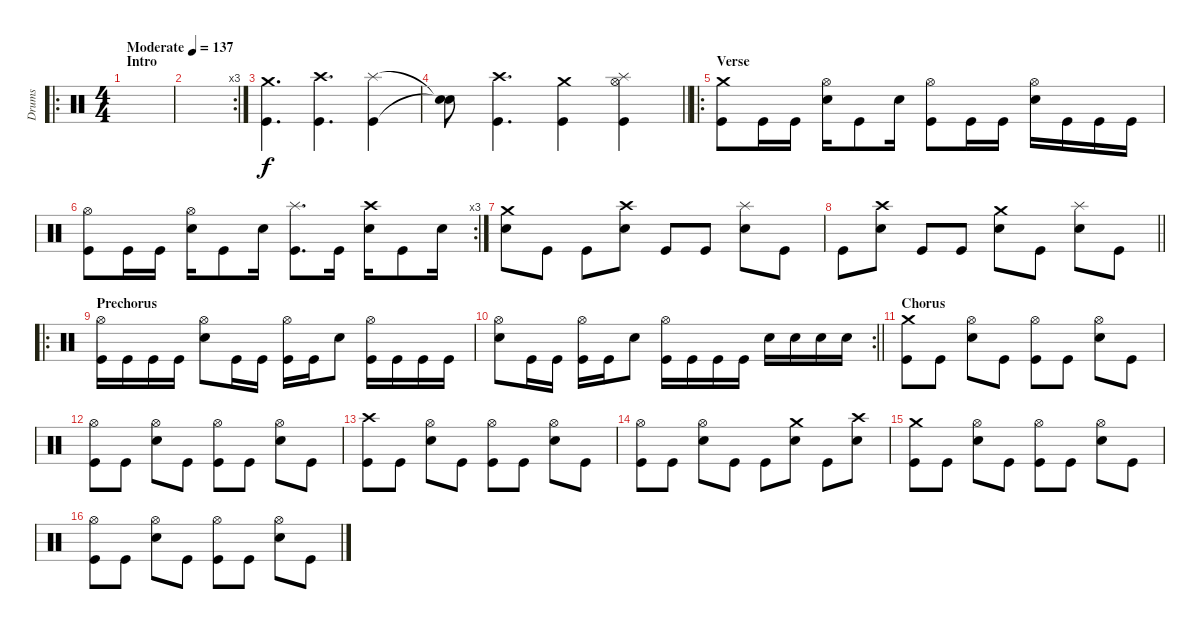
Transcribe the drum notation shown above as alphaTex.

\track ("Drums" "Drums") {instrument percussion}
\staff {score}
\articulation defaults
\ro
\ts (4 4)
\section ("" "Intro")
\tempo (137 "Moderate")
\clef neutral
\ks c
|
\rc 3
|
("Kick (hit)" "Crash medium (hit)").4{d} ("Kick (hit)" "Crash high (hit)").4{d} ("Kick (hit)" "Splash (hit)").4 |
\barLineRight lightlight
("Snare (hit)"{t} "Snare (hit)"{t}).8 ("Kick (hit)" "Crash high (hit)").4{d} ("Kick (hit)" "Crash medium (hit)").4 ("Kick (hit)" "Hi-Hat (open)" "Splash (hit)").4 |
\ro
\section ("" "Verse")
("Kick (hit)" "Crash medium (hit)").8 "Kick (hit)".16 "Kick (hit)".16 ("Snare (hit) 2" "Hi-Hat (open)").16 "Kick (hit)".8 "Snare (hit) 2".16 ("Kick (hit)" "Hi-Hat (open)").8 "Kick (hit)".16 "Kick (hit)".16 ("Snare (hit) 2" "Hi-Hat (open)").16 "Kick (hit)".16 "Kick (hit)".16 "Kick (hit)".16 |
\rc 3
("Kick (hit)" "Hi-Hat (open)").8 "Kick (hit)".16 "Kick (hit)".16 ("Snare (hit) 2" "Hi-Hat (open)").16 "Kick (hit)".8 "Snare (hit) 2".16 ("Kick (hit)" "Splash (hit)").8{d} "Kick (hit)".16 ("Snare (hit) 2" "Crash high (hit)").16 "Kick (hit)".8 "Snare (hit) 2".16 |
("Snare (hit) 2" "Crash medium (hit)").8 "Kick (hit)".8 "Kick (hit)".8 ("Snare (hit) 2" "Crash high (hit)").8 "Kick (hit)".8 "Kick (hit)".8 ("Snare (hit) 2" "Splash (hit)").8 "Kick (hit)".8 |
\barLineRight lightlight "Kick (hit)".8
("Snare (hit) 2" "Crash high (hit)").8 "Kick (hit)".8 "Kick (hit)".8 ("Snare (hit) 2" "Crash medium (hit)").8 "Kick (hit)".8 ("Snare (hit) 2" "Splash (hit)").8 "Kick (hit)".8 |
\ro
\section ("" "Prechorus")
("Kick (hit)" "Hi-Hat (open)").16 "Kick (hit)".16 "Kick (hit)".16 "Kick (hit)".16 ("Snare (hit) 2" "Hi-Hat (open)").8 "Kick (hit)".16 "Kick (hit)".16 ("Kick (hit)" "Hi-Hat (open)").16 "Kick (hit)".16 "Snare (hit) 2".8 ("Kick (hit)" "Hi-Hat (open)").16 "Kick (hit)".16 "Kick (hit)".16 "Kick (hit)".16 |
\rc 2
\barLineRight lightlight
("Snare (hit) 2" "Hi-Hat (open)").8 "Kick (hit)".16 "Kick (hit)".16 ("Kick (hit)" "Hi-Hat (open)").16 "Kick (hit)".16 "Snare (hit) 2".8 ("Kick (hit)" "Hi-Hat (open)").16 "Kick (hit)".16 "Kick (hit)".16 "Kick (hit)".16 "Snare (hit) 2".16 "Snare (hit) 2".16 "Snare (hit) 2".16 "Snare (hit) 2".16 |
\section ("" "Chorus")
("Kick (hit)" "Crash medium (hit)").8 "Kick (hit)".8 ("Snare (hit) 2" "Hi-Hat (open)").8 "Kick (hit)".8 ("Kick (hit)" "Hi-Hat (open)").8 "Kick (hit)".8 ("Snare (hit) 2" "Hi-Hat (open)").8 "Kick (hit)".8 |
("Kick (hit)" "Hi-Hat (open)").8 "Kick (hit)".8 ("Snare (hit) 2" "Hi-Hat (open)").8 "Kick (hit)".8 ("Kick (hit)" "Hi-Hat (open)").8 "Kick (hit)".8 ("Snare (hit) 2" "Hi-Hat (open)").8 "Kick (hit)".8 |
("Kick (hit)" "Crash high (hit)").8 "Kick (hit)".8 ("Snare (hit) 2" "Hi-Hat (open)").8 "Kick (hit)".8 ("Kick (hit)" "Hi-Hat (open)").8 "Kick (hit)".8 ("Snare (hit) 2" "Hi-Hat (open)").8 "Kick (hit)".8 |
("Kick (hit)" "Hi-Hat (open)").8 "Kick (hit)".8 ("Snare (hit) 2" "Hi-Hat (open)").8 "Kick (hit)".8 "Kick (hit)".8 ("Snare (hit) 2" "Crash medium (hit)").8 "Kick (hit)".8 ("Snare (hit) 2" "Crash high (hit)").8 |
("Kick (hit)" "Crash medium (hit)").8 "Kick (hit)".8 ("Snare (hit) 2" "Hi-Hat (open)").8 "Kick (hit)".8 ("Kick (hit)" "Hi-Hat (open)").8 "Kick (hit)".8 ("Snare (hit) 2" "Hi-Hat (open)").8 "Kick (hit)".8 |
("Kick (hit)" "Hi-Hat (open)").8 "Kick (hit)".8 ("Snare (hit) 2" "Hi-Hat (open)").8 "Kick (hit)".8 ("Kick (hit)" "Hi-Hat (open)").8 "Kick (hit)".8 ("Snare (hit) 2" "Hi-Hat (open)").8 "Kick (hit)".8
